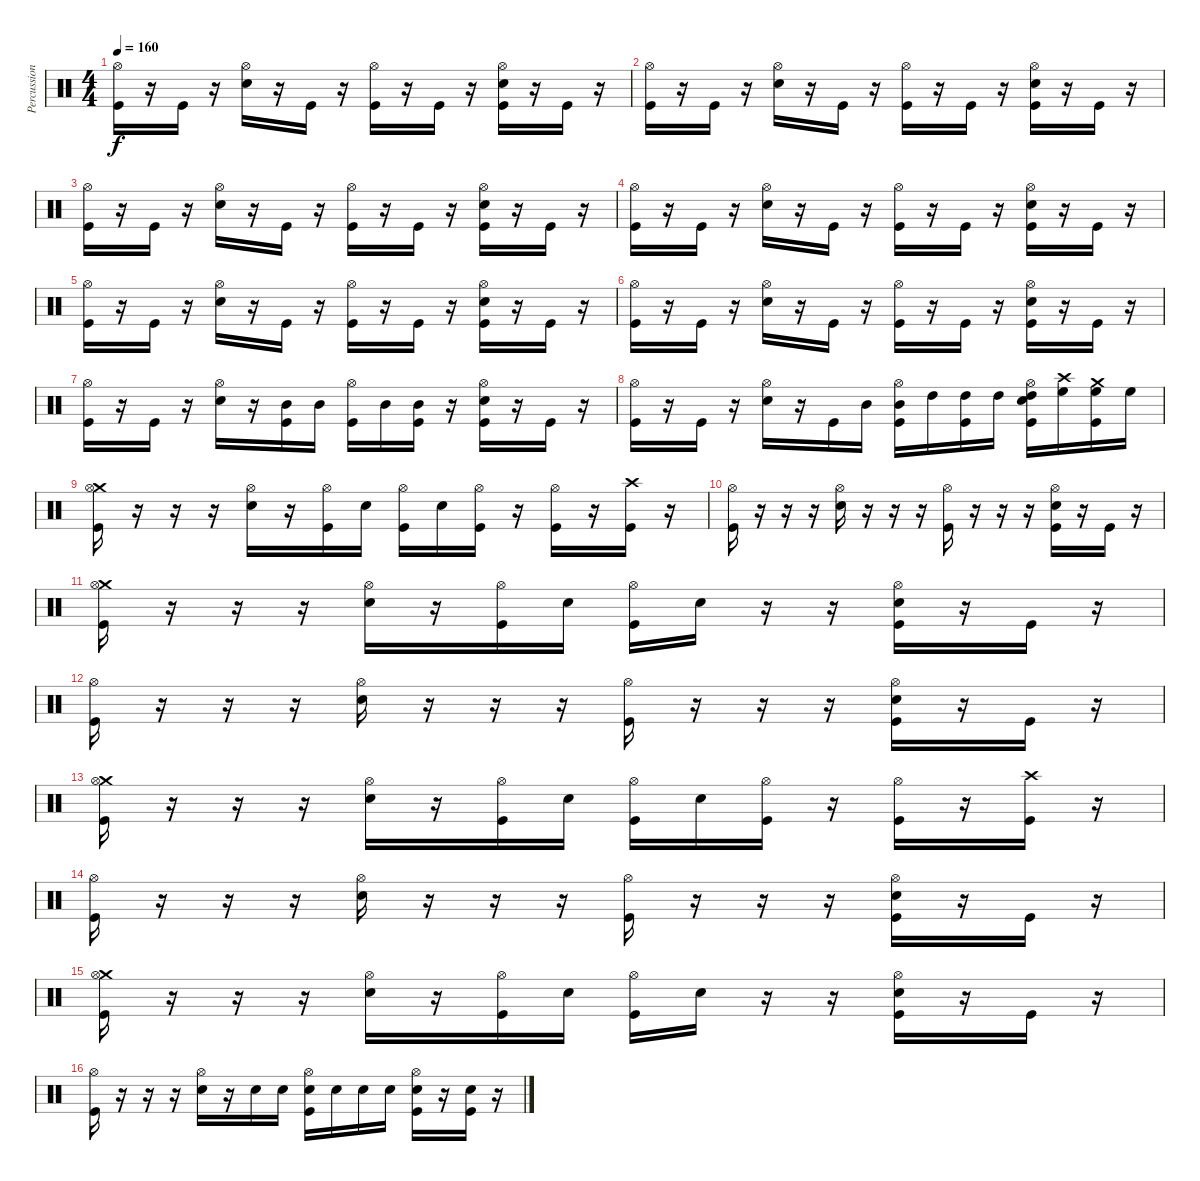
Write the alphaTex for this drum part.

\track ("Percussion" "Percussion") {instrument percussion}
\staff {score}
\articulation defaults
\ts (4 4)
\tempo 160
\clef neutral
\ks c
("Hi-Hat (open)" "Kick (hit)").16{dy f} r.16 "Kick (hit)".16 r.16 ("Snare (hit) 2" "Hi-Hat (open)").16 r.16 "Kick (hit)".16 r.16 ("Hi-Hat (open)" "Kick (hit)").16 r.16 "Kick (hit)".16 r.16 ("Snare (hit) 2" "Hi-Hat (open)" "Kick (hit)").16 r.16 "Kick (hit)".16 r.16 |
("Hi-Hat (open)" "Kick (hit)").16 r.16 "Kick (hit)".16 r.16 ("Snare (hit) 2" "Hi-Hat (open)").16 r.16 "Kick (hit)".16 r.16 ("Hi-Hat (open)" "Kick (hit)").16 r.16 "Kick (hit)".16 r.16 ("Snare (hit) 2" "Hi-Hat (open)" "Kick (hit)").16 r.16 "Kick (hit)".16 r.16 |
("Hi-Hat (open)" "Kick (hit)").16 r.16 "Kick (hit)".16 r.16 ("Snare (hit) 2" "Hi-Hat (open)").16 r.16 "Kick (hit)".16 r.16 ("Hi-Hat (open)" "Kick (hit)").16 r.16 "Kick (hit)".16 r.16 ("Snare (hit) 2" "Hi-Hat (open)" "Kick (hit)").16 r.16 "Kick (hit)".16 r.16 |
("Hi-Hat (open)" "Kick (hit)").16 r.16 "Kick (hit)".16 r.16 ("Snare (hit) 2" "Hi-Hat (open)").16 r.16 "Kick (hit)".16 r.16 ("Hi-Hat (open)" "Kick (hit)").16 r.16 "Kick (hit)".16 r.16 ("Snare (hit) 2" "Hi-Hat (open)" "Kick (hit)").16 r.16 "Kick (hit)".16 r.16 |
("Hi-Hat (open)" "Kick (hit)").16 r.16 "Kick (hit)".16 r.16 ("Snare (hit) 2" "Hi-Hat (open)").16 r.16 "Kick (hit)".16 r.16 ("Hi-Hat (open)" "Kick (hit)").16 r.16 "Kick (hit)".16 r.16 ("Snare (hit) 2" "Hi-Hat (open)" "Kick (hit)").16 r.16 "Kick (hit)".16 r.16 |
("Hi-Hat (open)" "Kick (hit)").16 r.16 "Kick (hit)".16 r.16 ("Snare (hit) 2" "Hi-Hat (open)").16 r.16 "Kick (hit)".16 r.16 ("Hi-Hat (open)" "Kick (hit)").16 r.16 "Kick (hit)".16 r.16 ("Snare (hit) 2" "Hi-Hat (open)" "Kick (hit)").16 r.16 "Kick (hit)".16 r.16 |
("Hi-Hat (open)" "Kick (hit)").16 r.16 "Kick (hit)".16 r.16 ("Snare (hit) 2" "Hi-Hat (open)").16 r.16 ("Mid Tom (hit)" "Kick (hit)").16 "Mid Tom (hit)".16 ("Hi-Hat (open)" "Kick (hit)").16 "Mid Tom (hit)".16 ("Mid Tom (hit)" "Kick (hit)").16 r.16 ("Snare (hit) 2" "Hi-Hat (open)" "Kick (hit)").16 r.16 "Kick (hit)".16 r.16 |
("Hi-Hat (open)" "Kick (hit)").16 r.16 "Kick (hit)".16 r.16 ("Snare (hit) 2" "Hi-Hat (open)").16 r.16 "Kick (hit)".16 "Mid Tom (hit)".16 ("Mid Tom (hit)" "Hi-Hat (open)" "Kick (hit)").16 "High Tom (hit)".16 ("High Tom (hit)" "Kick (hit)").16 "High Tom (hit)".16 ("High Tom (hit)" "Snare (hit) 2" "Hi-Hat (open)" "Kick (hit)").16 ("Crash high (hit)" "High Floor Tom (hit)").16 ("Crash medium (hit)" "High Floor Tom (hit)" "Kick (hit)").16 "High Floor Tom (hit)".16 |
("Crash medium (hit)" "Hi-Hat (open)" "Kick (hit)").16 r.16 r.16 r.16 ("Snare (hit) 2" "Hi-Hat (open)").16 r.16 ("Hi-Hat (open)" "Kick (hit)").16 "Snare (hit) 2".16 ("Hi-Hat (open)" "Kick (hit)").16 "Snare (hit) 2".16 ("Hi-Hat (open)" "Kick (hit)").16 r.16 ("Hi-Hat (open)" "Kick (hit)").16 r.16 ("Crash high (hit)" "Kick (hit)").16 r.16 |
("Hi-Hat (open)" "Kick (hit)").16 r.16 r.16 r.16 ("Snare (hit) 2" "Hi-Hat (open)").16 r.16 r.16 r.16 ("Hi-Hat (open)" "Kick (hit)").16 r.16 r.16 r.16 ("Snare (hit) 2" "Hi-Hat (open)" "Kick (hit)").16 r.16 "Kick (hit)".16 r.16 |
("Crash medium (hit)" "Hi-Hat (open)" "Kick (hit)").16 r.16 r.16 r.16 ("Snare (hit) 2" "Hi-Hat (open)").16 r.16 ("Hi-Hat (open)" "Kick (hit)").16 "Snare (hit) 2".16 ("Hi-Hat (open)" "Kick (hit)").16 "Snare (hit) 2".16 r.16 r.16 ("Snare (hit) 2" "Hi-Hat (open)" "Kick (hit)").16 r.16 "Kick (hit)".16 r.16 |
("Hi-Hat (open)" "Kick (hit)").16 r.16 r.16 r.16 ("Snare (hit) 2" "Hi-Hat (open)").16 r.16 r.16 r.16 ("Hi-Hat (open)" "Kick (hit)").16 r.16 r.16 r.16 ("Snare (hit) 2" "Hi-Hat (open)" "Kick (hit)").16 r.16 "Kick (hit)".16 r.16 |
("Crash medium (hit)" "Hi-Hat (open)" "Kick (hit)").16 r.16 r.16 r.16 ("Snare (hit) 2" "Hi-Hat (open)").16 r.16 ("Hi-Hat (open)" "Kick (hit)").16 "Snare (hit) 2".16 ("Hi-Hat (open)" "Kick (hit)").16 "Snare (hit) 2".16 ("Hi-Hat (open)" "Kick (hit)").16 r.16 ("Hi-Hat (open)" "Kick (hit)").16 r.16 ("Crash high (hit)" "Kick (hit)").16 r.16 |
("Hi-Hat (open)" "Kick (hit)").16 r.16 r.16 r.16 ("Snare (hit) 2" "Hi-Hat (open)").16 r.16 r.16 r.16 ("Hi-Hat (open)" "Kick (hit)").16 r.16 r.16 r.16 ("Snare (hit) 2" "Hi-Hat (open)" "Kick (hit)").16 r.16 "Kick (hit)".16 r.16 |
("Crash medium (hit)" "Hi-Hat (open)" "Kick (hit)").16 r.16 r.16 r.16 ("Snare (hit) 2" "Hi-Hat (open)").16 r.16 ("Hi-Hat (open)" "Kick (hit)").16 "Snare (hit) 2".16 ("Hi-Hat (open)" "Kick (hit)").16 "Snare (hit) 2".16 r.16 r.16 ("Snare (hit) 2" "Hi-Hat (open)" "Kick (hit)").16 r.16 "Kick (hit)".16 r.16 |
("Hi-Hat (open)" "Kick (hit)").16 r.16 r.16 r.16 ("Snare (hit) 2" "Hi-Hat (open)").16 r.16 "Snare (hit) 2".16 "Snare (hit) 2".16 ("Snare (hit) 2" "Hi-Hat (open)" "Kick (hit)").16 "Snare (hit) 2".16 "Snare (hit) 2".16 "Snare (hit) 2".16 ("Snare (hit) 2" "Hi-Hat (open)" "Kick (hit)").16 r.16 ("Snare (hit) 2" "Kick (hit)").16 r.16
